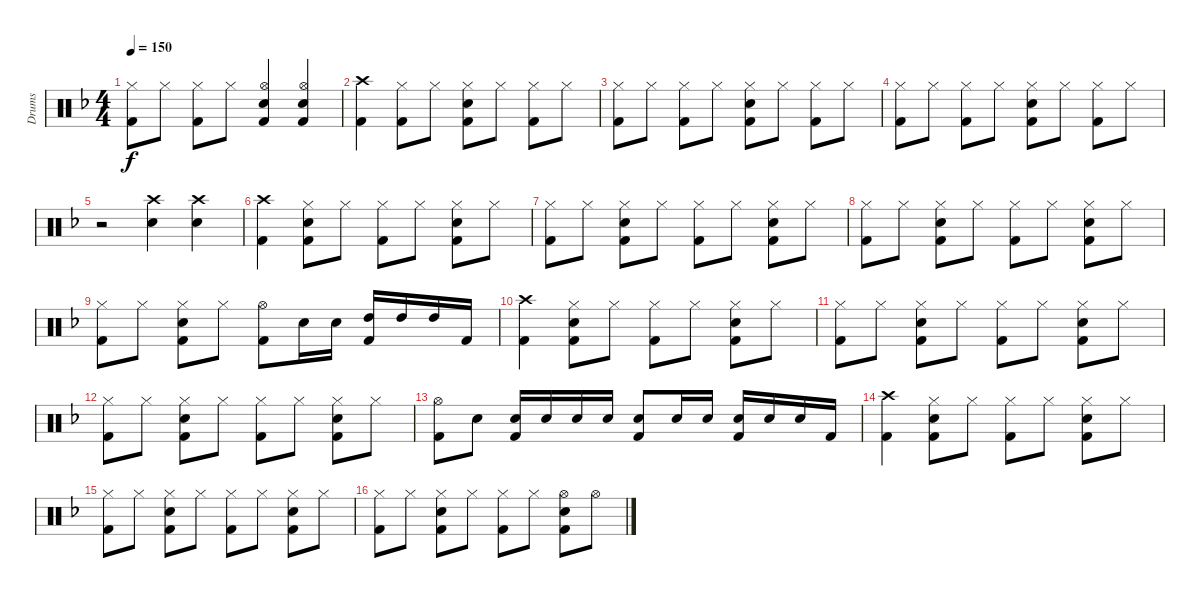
\track ("Drums" "Drums") {instrument percussion}
\staff {score}
\articulation defaults
\ts (4 4)
\tempo 150
\clef neutral
\ks f
("Hi-Hat (closed)" "Kick (hit) 2").8{dy f} "Hi-Hat (closed)".8 ("Hi-Hat (closed)" "Kick (hit) 2").8 "Hi-Hat (closed)".8 ("Hi-Hat (open)" "Electric Snare (hit)" "Kick (hit) 2").4 ("Hi-Hat (open)" "Electric Snare (hit)" "Kick (hit) 2").4 |
("Crash high (hit)" "Kick (hit) 2").4 ("Hi-Hat (closed)" "Kick (hit) 2").8 "Hi-Hat (closed)".8 ("Hi-Hat (closed)" "Electric Snare (hit)" "Kick (hit) 2").8 "Hi-Hat (closed)".8 ("Hi-Hat (closed)" "Kick (hit) 2").8 "Hi-Hat (closed)".8 |
("Hi-Hat (closed)" "Kick (hit) 2").8 "Hi-Hat (closed)".8 ("Hi-Hat (closed)" "Kick (hit) 2").8 "Hi-Hat (closed)".8 ("Hi-Hat (closed)" "Electric Snare (hit)" "Kick (hit) 2").8 "Hi-Hat (closed)".8 ("Hi-Hat (closed)" "Kick (hit) 2").8 "Hi-Hat (closed)".8 |
("Hi-Hat (closed)" "Kick (hit) 2").8 "Hi-Hat (closed)".8 ("Hi-Hat (closed)" "Kick (hit) 2").8 "Hi-Hat (closed)".8 ("Hi-Hat (closed)" "Electric Snare (hit)" "Kick (hit) 2").8 "Hi-Hat (closed)".8 ("Hi-Hat (closed)" "Kick (hit) 2").8 "Hi-Hat (closed)".8 |
r.2 ("Crash high (hit)" "Electric Snare (hit)").4 ("Crash high (hit)" "Electric Snare (hit)").4 |
("Crash high (hit)" "Kick (hit) 2").4 ("Hi-Hat (closed)" "Electric Snare (hit)" "Kick (hit) 2").8 "Hi-Hat (closed)".8 ("Hi-Hat (closed)" "Kick (hit) 2").8 "Hi-Hat (closed)".8 ("Hi-Hat (closed)" "Electric Snare (hit)" "Kick (hit) 2").8 "Hi-Hat (closed)".8 |
("Hi-Hat (closed)" "Kick (hit) 2").8 "Hi-Hat (closed)".8 ("Hi-Hat (closed)" "Electric Snare (hit)" "Kick (hit) 2").8 "Hi-Hat (closed)".8 ("Hi-Hat (closed)" "Kick (hit) 2").8 "Hi-Hat (closed)".8 ("Hi-Hat (closed)" "Electric Snare (hit)" "Kick (hit) 2").8 "Hi-Hat (closed)".8 |
("Hi-Hat (closed)" "Kick (hit) 2").8 "Hi-Hat (closed)".8 ("Hi-Hat (closed)" "Electric Snare (hit)" "Kick (hit) 2").8 "Hi-Hat (closed)".8 ("Hi-Hat (closed)" "Kick (hit) 2").8 "Hi-Hat (closed)".8 ("Hi-Hat (closed)" "Electric Snare (hit)" "Kick (hit) 2").8 "Hi-Hat (closed)".8 |
("Hi-Hat (closed)" "Kick (hit) 2").8 "Hi-Hat (closed)".8 ("Hi-Hat (closed)" "Electric Snare (hit)" "Kick (hit) 2").8 "Hi-Hat (closed)".8 ("Hi-Hat (open)" "Kick (hit) 2").8 "Electric Snare (hit)".16 "Electric Snare (hit)".16 ("High Tom (hit)" "Kick (hit) 2").16 "High Tom (hit)".16 "High Tom (hit)".16 "Kick (hit) 2".16 |
("Crash high (hit)" "Kick (hit) 2").4 ("Hi-Hat (closed)" "Electric Snare (hit)" "Kick (hit) 2").8 "Hi-Hat (closed)".8 ("Hi-Hat (closed)" "Kick (hit) 2").8 "Hi-Hat (closed)".8 ("Hi-Hat (closed)" "Electric Snare (hit)" "Kick (hit) 2").8 "Hi-Hat (closed)".8 |
("Hi-Hat (closed)" "Kick (hit) 2").8 "Hi-Hat (closed)".8 ("Hi-Hat (closed)" "Electric Snare (hit)" "Kick (hit) 2").8 "Hi-Hat (closed)".8 ("Hi-Hat (closed)" "Kick (hit) 2").8 "Hi-Hat (closed)".8 ("Hi-Hat (closed)" "Electric Snare (hit)" "Kick (hit) 2").8 "Hi-Hat (closed)".8 |
("Hi-Hat (closed)" "Kick (hit) 2").8 "Hi-Hat (closed)".8 ("Hi-Hat (closed)" "Electric Snare (hit)" "Kick (hit) 2").8 "Hi-Hat (closed)".8 ("Hi-Hat (closed)" "Kick (hit) 2").8 "Hi-Hat (closed)".8 ("Hi-Hat (closed)" "Electric Snare (hit)" "Kick (hit) 2").8 "Hi-Hat (closed)".8 |
("Hi-Hat (open)" "Kick (hit) 2").8 "Electric Snare (hit)".8 ("Electric Snare (hit)" "Kick (hit) 2").16 "Electric Snare (hit)".16 "Electric Snare (hit)".16 "Electric Snare (hit)".16 ("Electric Snare (hit)" "Kick (hit) 2").8 "Electric Snare (hit)".16 "Electric Snare (hit)".16 ("Electric Snare (hit)" "Kick (hit) 2").16 "Electric Snare (hit)".16 "Electric Snare (hit)".16 "Kick (hit) 2".16 |
("Crash high (hit)" "Kick (hit) 2").4 ("Hi-Hat (closed)" "Electric Snare (hit)" "Kick (hit) 2").8 "Hi-Hat (closed)".8 ("Hi-Hat (closed)" "Kick (hit) 2").8 "Hi-Hat (closed)".8 ("Hi-Hat (closed)" "Electric Snare (hit)" "Kick (hit) 2").8 "Hi-Hat (closed)".8 |
("Hi-Hat (closed)" "Kick (hit) 2").8 "Hi-Hat (closed)".8 ("Hi-Hat (closed)" "Electric Snare (hit)" "Kick (hit) 2").8 "Hi-Hat (closed)".8 ("Hi-Hat (closed)" "Kick (hit) 2").8 "Hi-Hat (closed)".8 ("Hi-Hat (closed)" "Electric Snare (hit)" "Kick (hit) 2").8 "Hi-Hat (closed)".8 |
("Hi-Hat (closed)" "Kick (hit) 2").8 "Hi-Hat (closed)".8 ("Hi-Hat (closed)" "Electric Snare (hit)" "Kick (hit) 2").8 "Hi-Hat (closed)".8 ("Hi-Hat (closed)" "Kick (hit) 2").8 "Hi-Hat (closed)".8 ("Hi-Hat (open)" "Electric Snare (hit)" "Kick (hit) 2").8 "Hi-Hat (open)".8
